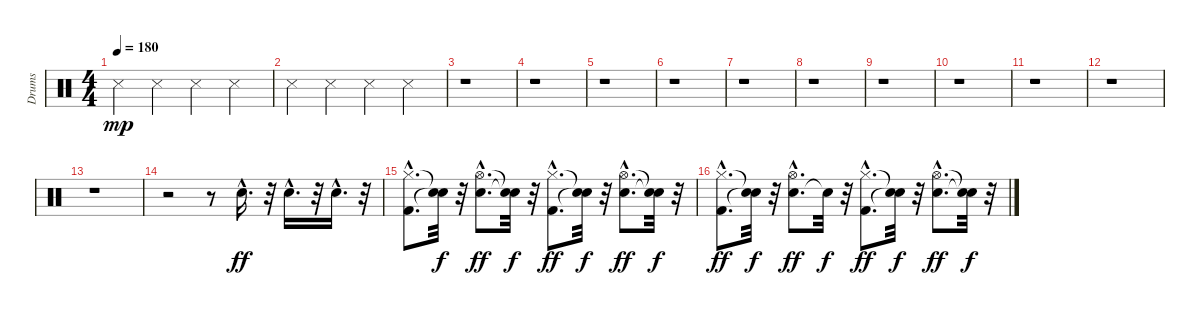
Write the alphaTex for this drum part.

\track ("Drums" "Drums") {instrument percussion}
\staff {score}
\articulation defaults
\ts (4 4)
\tempo 180
\clef neutral
\ks c "Snare (side stick) 3".4{dy mp} "Snare (side stick) 3".4 "Snare (side stick) 3".4 "Snare (side stick) 3".4{volume 12}
|
"Snare (side stick) 3".4 "Snare (side stick) 3".4 "Snare (side stick) 3".4 "Snare (side stick) 3".4{volume 12} |
r.1 |
r.1 |
r.1 |
r.1 |
r.1 |
r.1 |
r.1 |
r.1 |
r.1 |
r.1 |
r.1 |
r.2 r.8 "Snare (hit) 2"{hac}.16{d dy ff} r.32 "Snare (hit) 2"{hac}.16{d} r.32 "Snare (hit) 2"{hac}.16{d} r.32 |
("Kick (hit) 2"{hac} "Hi-Hat (closed)"{hac}).8{d} ("Snare (hit)"{t} "Snare (hit)"{t}).32{dy f} r.32 ("Snare (hit) 2"{hac} "Hi-Hat (open)"{hac}).8{d dy ff} ("Snare (hit)"{t} "Snare (hit)"{t}).32{dy f} r.32 ("Kick (hit) 2"{hac} "Hi-Hat (closed)"{hac}).8{d dy ff} ("Snare (hit)"{t} "Snare (hit)"{t}).32{dy f} r.32 ("Snare (hit) 2"{hac} "Hi-Hat (open)"{hac}).8{d dy ff} ("Snare (hit)"{t} "Snare (hit)"{t}).32{dy f} r.32 |
("Kick (hit) 2"{hac} "Hi-Hat (closed)"{hac}).8{d dy ff} ("Snare (hit)"{t} "Snare (hit)"{t}).32{dy f} r.32 ("Snare (hit) 2"{hac} "Hi-Hat (open)"{hac}).8{d dy ff} "Snare (hit)"{t}.32{dy f} r.32 ("Kick (hit) 2"{hac} "Hi-Hat (closed)"{hac}).8{d dy ff} ("Snare (hit)"{t} "Snare (hit)"{t}).32{dy f} r.32 ("Snare (hit) 2"{hac} "Hi-Hat (open)"{hac}).8{d dy ff} ("Snare (hit)"{t} "Snare (hit)"{t}).32{dy f} r.32
